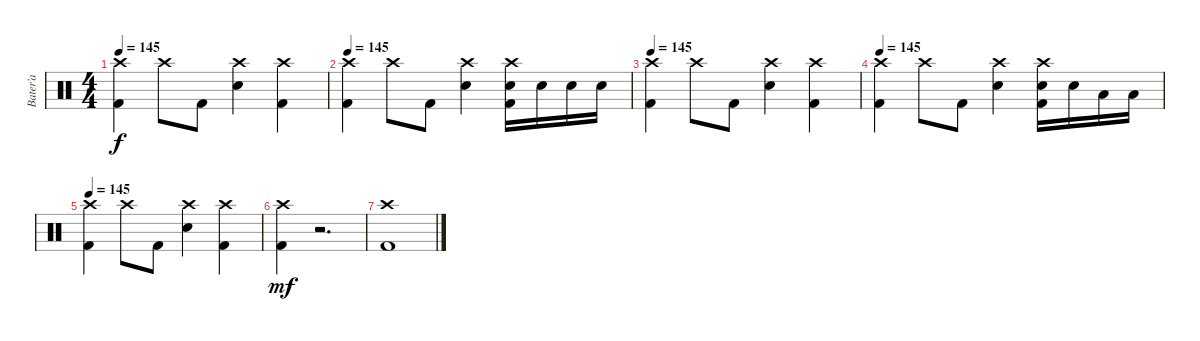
\track ("Bater’a" "Bater’a") {instrument percussion}
\staff {score}
\articulation defaults
\ts (4 4)
\tempo 145
\clef neutral
\ks c
("Crash high (hit)" "Kick (hit) 2").4{dy f} "Crash high (hit)".8 "Kick (hit) 2".8 ("Crash high (hit)" "Electric Snare (hit)").4 ("Crash high (hit)" "Kick (hit) 2").4 |
\tempo 145
("Crash high (hit)" "Kick (hit) 2").4 "Crash high (hit)".8 "Kick (hit) 2".8 ("Crash high (hit)" "Electric Snare (hit)").4 ("Crash high (hit)" "Electric Snare (hit)" "Kick (hit) 2").16 "Electric Snare (hit)".16 "Electric Snare (hit)".16 "Electric Snare (hit)".16 |
\tempo 145
("Crash high (hit)" "Kick (hit) 2").4 "Crash high (hit)".8 "Kick (hit) 2".8 ("Crash high (hit)" "Electric Snare (hit)").4 ("Crash high (hit)" "Kick (hit) 2").4 |
\tempo 145
("Crash high (hit)" "Kick (hit) 2").4 "Crash high (hit)".8 "Kick (hit) 2".8 ("Crash high (hit)" "Electric Snare (hit)").4 ("Crash high (hit)" "Electric Snare (hit)" "Kick (hit) 2").16 "Electric Snare (hit)".16 "Low Tom (hit)".16 "Low Tom (hit)".16 |
\tempo 145
("Crash high (hit)" "Kick (hit) 2").4 "Crash high (hit)".8 "Kick (hit) 2".8 ("Crash high (hit)" "Electric Snare (hit)").4 ("Crash high (hit)" "Kick (hit) 2").4 |
("Crash high (hit)" "Kick (hit) 2").4{dy mf} r.2{d} |
("Crash high (hit)" "Kick (hit) 2").1
